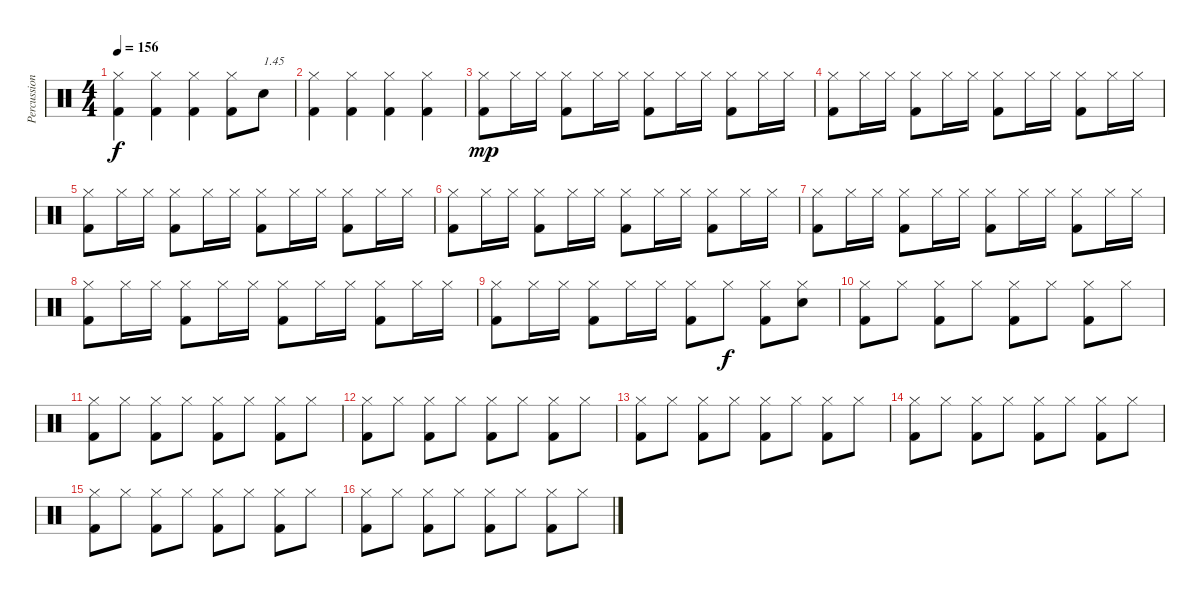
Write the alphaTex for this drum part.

\track ("Percussions" "Percussion") {instrument percussion}
\staff {score}
\articulation defaults
\ts (4 4)
\tempo 156
\clef neutral
\ks c
("Kick (hit) 2" "Hi-Hat (closed)").4{dy f} ("Kick (hit) 2" "Hi-Hat (closed)").4 ("Kick (hit) 2" "Hi-Hat (closed)").4 ("Kick (hit) 2" "Hi-Hat (closed)").8 "Electric Snare (hit)".8{txt "1.45"} |
("Kick (hit) 2" "Hi-Hat (closed)").4 ("Kick (hit) 2" "Hi-Hat (closed)").4 ("Kick (hit) 2" "Hi-Hat (closed)").4 ("Kick (hit) 2" "Hi-Hat (closed)").4 |
("Kick (hit) 2" "Hi-Hat (closed)").8{dy mp} "Hi-Hat (closed)".16 "Hi-Hat (closed)".16 ("Kick (hit) 2" "Hi-Hat (closed)").8 "Hi-Hat (closed)".16 "Hi-Hat (closed)".16 ("Kick (hit) 2" "Hi-Hat (closed)").8 "Hi-Hat (closed)".16 "Hi-Hat (closed)".16 ("Kick (hit) 2" "Hi-Hat (closed)").8 "Hi-Hat (closed)".16 "Hi-Hat (closed)".16 |
("Kick (hit) 2" "Hi-Hat (closed)").8 "Hi-Hat (closed)".16 "Hi-Hat (closed)".16 ("Kick (hit) 2" "Hi-Hat (closed)").8 "Hi-Hat (closed)".16 "Hi-Hat (closed)".16 ("Kick (hit) 2" "Hi-Hat (closed)").8 "Hi-Hat (closed)".16 "Hi-Hat (closed)".16 ("Kick (hit) 2" "Hi-Hat (closed)").8 "Hi-Hat (closed)".16 "Hi-Hat (closed)".16 |
("Kick (hit) 2" "Hi-Hat (closed)").8 "Hi-Hat (closed)".16 "Hi-Hat (closed)".16 ("Kick (hit) 2" "Hi-Hat (closed)").8 "Hi-Hat (closed)".16 "Hi-Hat (closed)".16 ("Kick (hit) 2" "Hi-Hat (closed)").8 "Hi-Hat (closed)".16 "Hi-Hat (closed)".16 ("Kick (hit) 2" "Hi-Hat (closed)").8 "Hi-Hat (closed)".16 "Hi-Hat (closed)".16 |
("Kick (hit) 2" "Hi-Hat (closed)").8 "Hi-Hat (closed)".16 "Hi-Hat (closed)".16 ("Kick (hit) 2" "Hi-Hat (closed)").8 "Hi-Hat (closed)".16 "Hi-Hat (closed)".16 ("Kick (hit) 2" "Hi-Hat (closed)").8 "Hi-Hat (closed)".16 "Hi-Hat (closed)".16 ("Kick (hit) 2" "Hi-Hat (closed)").8 "Hi-Hat (closed)".16 "Hi-Hat (closed)".16 |
("Kick (hit) 2" "Hi-Hat (closed)").8 "Hi-Hat (closed)".16 "Hi-Hat (closed)".16 ("Kick (hit) 2" "Hi-Hat (closed)").8 "Hi-Hat (closed)".16 "Hi-Hat (closed)".16 ("Kick (hit) 2" "Hi-Hat (closed)").8 "Hi-Hat (closed)".16 "Hi-Hat (closed)".16 ("Kick (hit) 2" "Hi-Hat (closed)").8 "Hi-Hat (closed)".16 "Hi-Hat (closed)".16 |
("Kick (hit) 2" "Hi-Hat (closed)").8 "Hi-Hat (closed)".16 "Hi-Hat (closed)".16 ("Kick (hit) 2" "Hi-Hat (closed)").8 "Hi-Hat (closed)".16 "Hi-Hat (closed)".16 ("Kick (hit) 2" "Hi-Hat (closed)").8 "Hi-Hat (closed)".16 "Hi-Hat (closed)".16 ("Kick (hit) 2" "Hi-Hat (closed)").8 "Hi-Hat (closed)".16 "Hi-Hat (closed)".16 |
("Kick (hit) 2" "Hi-Hat (closed)").8 "Hi-Hat (closed)".16 "Hi-Hat (closed)".16 ("Kick (hit) 2" "Hi-Hat (closed)").8 "Hi-Hat (closed)".16 "Hi-Hat (closed)".16 ("Kick (hit) 2" "Hi-Hat (closed)").8 "Hi-Hat (closed)".8{dy f} ("Kick (hit) 2" "Hi-Hat (closed)").8 ("Electric Snare (hit)" "Hi-Hat (closed)").8 |
("Kick (hit) 2" "Hi-Hat (closed)").8 "Hi-Hat (closed)".8 ("Kick (hit) 2" "Hi-Hat (closed)").8 "Hi-Hat (closed)".8 ("Kick (hit) 2" "Hi-Hat (closed)").8 "Hi-Hat (closed)".8 ("Kick (hit) 2" "Hi-Hat (closed)").8 "Hi-Hat (closed)".8 |
("Kick (hit) 2" "Hi-Hat (closed)").8 "Hi-Hat (closed)".8 ("Kick (hit) 2" "Hi-Hat (closed)").8 "Hi-Hat (closed)".8 ("Kick (hit) 2" "Hi-Hat (closed)").8 "Hi-Hat (closed)".8 ("Kick (hit) 2" "Hi-Hat (closed)").8 "Hi-Hat (closed)".8 |
("Kick (hit) 2" "Hi-Hat (closed)").8 "Hi-Hat (closed)".8 ("Kick (hit) 2" "Hi-Hat (closed)").8 "Hi-Hat (closed)".8 ("Kick (hit) 2" "Hi-Hat (closed)").8 "Hi-Hat (closed)".8 ("Kick (hit) 2" "Hi-Hat (closed)").8 "Hi-Hat (closed)".8 |
("Kick (hit) 2" "Hi-Hat (closed)").8 "Hi-Hat (closed)".8 ("Kick (hit) 2" "Hi-Hat (closed)").8 "Hi-Hat (closed)".8 ("Kick (hit) 2" "Hi-Hat (closed)").8 "Hi-Hat (closed)".8 ("Kick (hit) 2" "Hi-Hat (closed)").8 "Hi-Hat (closed)".8 |
("Kick (hit) 2" "Hi-Hat (closed)").8 "Hi-Hat (closed)".8 ("Kick (hit) 2" "Hi-Hat (closed)").8 "Hi-Hat (closed)".8 ("Kick (hit) 2" "Hi-Hat (closed)").8 "Hi-Hat (closed)".8 ("Kick (hit) 2" "Hi-Hat (closed)").8 "Hi-Hat (closed)".8 |
("Kick (hit) 2" "Hi-Hat (closed)").8 "Hi-Hat (closed)".8 ("Kick (hit) 2" "Hi-Hat (closed)").8 "Hi-Hat (closed)".8 ("Kick (hit) 2" "Hi-Hat (closed)").8 "Hi-Hat (closed)".8 ("Kick (hit) 2" "Hi-Hat (closed)").8 "Hi-Hat (closed)".8 |
("Kick (hit) 2" "Hi-Hat (closed)").8 "Hi-Hat (closed)".8 ("Kick (hit) 2" "Hi-Hat (closed)").8 "Hi-Hat (closed)".8 ("Kick (hit) 2" "Hi-Hat (closed)").8 "Hi-Hat (closed)".8 ("Kick (hit) 2" "Hi-Hat (closed)").8 "Hi-Hat (closed)".8
